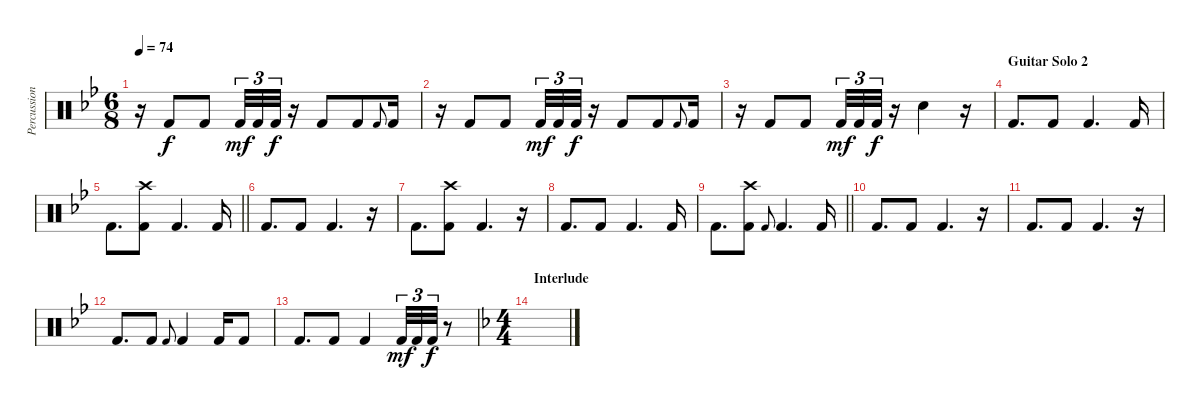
\track ("Percussion" "Percussion") {instrument percussion}
\staff {score}
\articulation defaults
\ts (6 8)
\tempo 74
\clef neutral
\ks bb
r.16{dy f} "Kick (hit) 2".8 "Kick (hit) 2".8 "Kick (hit) 2".32{tu (3 2) dy mf} "Kick (hit) 2".32{tu (3 2)} "Kick (hit) 2".32{tu (3 2) dy f} r.16 "Kick (hit) 2".8 "Kick (hit) 2".8 "Kick (hit) 2".8{gr onbeat} "Kick (hit) 2".16 |
r.16 "Kick (hit) 2".8 "Kick (hit) 2".8 "Kick (hit) 2".32{tu (3 2) dy mf} "Kick (hit) 2".32{tu (3 2)} "Kick (hit) 2".32{tu (3 2) dy f} r.16 "Kick (hit) 2".8 "Kick (hit) 2".8 "Kick (hit) 2".8{gr onbeat} "Kick (hit) 2".16 |
r.16 "Kick (hit) 2".8 "Kick (hit) 2".8 "Kick (hit) 2".32{tu (3 2) dy mf} "Kick (hit) 2".32{tu (3 2)} "Kick (hit) 2".32{tu (3 2) dy f} r.16 "Electric Snare (hit)".4 r.16 |
\section ("" "Guitar Solo 2")
"Kick (hit) 2".8{d} "Kick (hit) 2".8 "Kick (hit) 2".4{d} "Kick (hit) 2".16 |
\barLineRight lightlight "Kick (hit) 2".8{d}
("Crash high (hit)" "Kick (hit) 2").8 "Kick (hit) 2".4{d} "Kick (hit) 2".16 |
"Kick (hit) 2".8{d} "Kick (hit) 2".8 "Kick (hit) 2".4{d} r.16 |
"Kick (hit) 2".8{d} ("Crash high (hit)" "Kick (hit) 2").8 "Kick (hit) 2".4{d} r.16 |
"Kick (hit) 2".8{d} "Kick (hit) 2".8 "Kick (hit) 2".4{d} "Kick (hit) 2".16 |
\barLineRight lightlight "Kick (hit) 2".8{d}
("Crash high (hit)" "Kick (hit) 2").8 "Kick (hit) 2".8{gr onbeat} "Kick (hit) 2".4{d} "Kick (hit) 2".16 |
"Kick (hit) 2".8{d} "Kick (hit) 2".8 "Kick (hit) 2".4{d} r.16 |
"Kick (hit) 2".8{d} "Kick (hit) 2".8 "Kick (hit) 2".4{d} r.16 |
"Kick (hit) 2".8{d} "Kick (hit) 2".8 "Kick (hit) 2".8{gr onbeat} "Kick (hit) 2".4 "Kick (hit) 2".16 "Kick (hit) 2".8 |
"Kick (hit) 2".8{d} "Kick (hit) 2".8 "Kick (hit) 2".4 "Kick (hit) 2".32{tu (3 2) dy mf} "Kick (hit) 2".32{tu (3 2)} "Kick (hit) 2".32{tu (3 2) dy f} r.8 |
\ts (4 4)
\section ("" "Interlude")
\ks f
